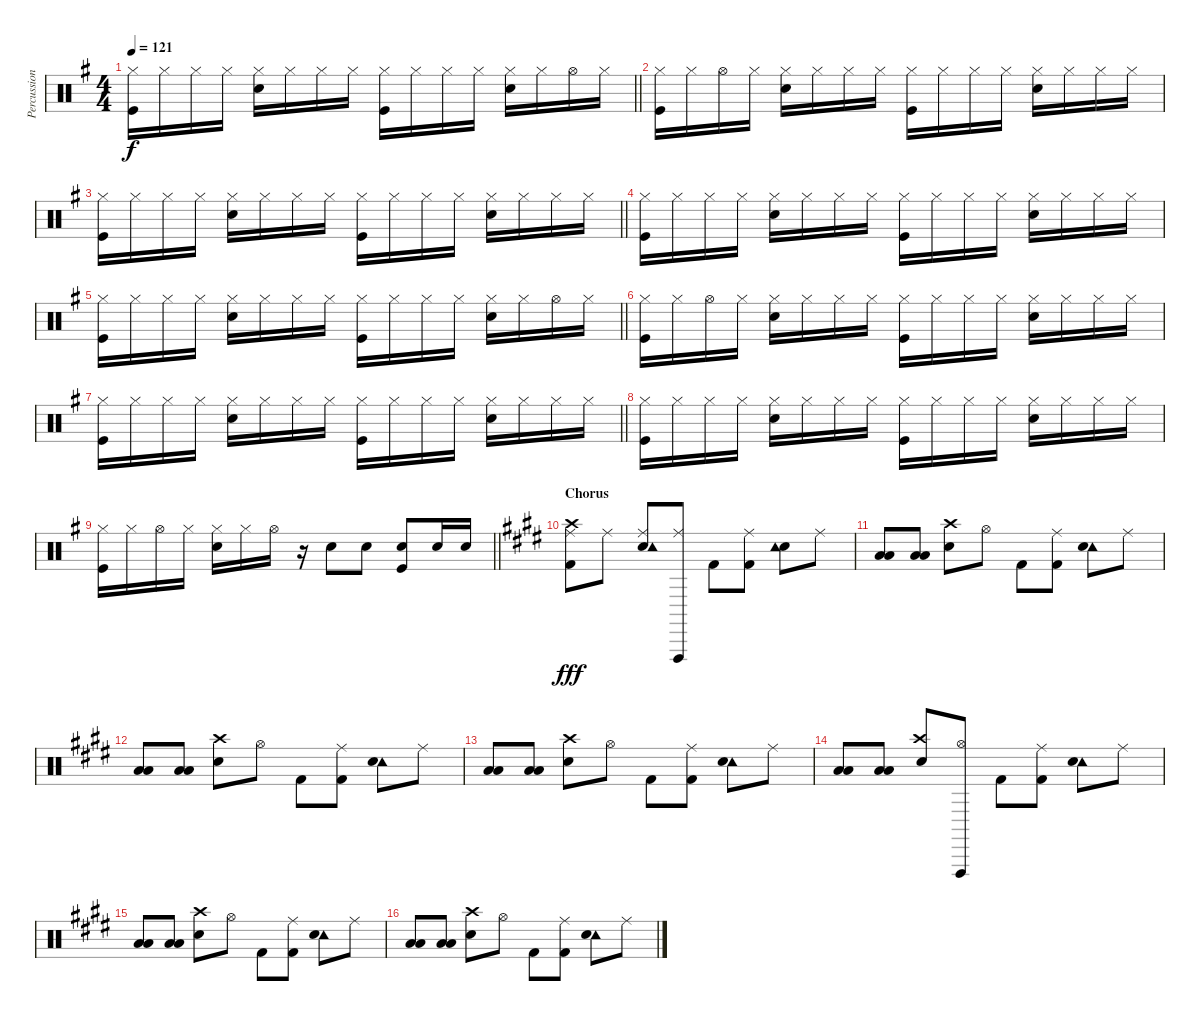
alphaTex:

\track ("Percussion" "Percussion") {instrument percussion}
\staff {score}
\articulation defaults
\ts (4 4)
\tempo 121
\clef neutral
\barLineRight lightlight
\ks g
("Hi-Hat (closed)" "Kick (hit)").16{dy f} "Hi-Hat (closed)".16 "Hi-Hat (closed)".16 "Hi-Hat (closed)".16 ("Hi-Hat (closed)" "Snare (hit) 2").16 "Hi-Hat (closed)".16 "Hi-Hat (closed)".16 "Hi-Hat (closed)".16 ("Hi-Hat (closed)" "Kick (hit)").16 "Hi-Hat (closed)".16 "Hi-Hat (closed)".16 "Hi-Hat (closed)".16 ("Hi-Hat (closed)" "Snare (hit) 2").16 "Hi-Hat (closed)".16 "Hi-Hat (open)".16 "Hi-Hat (closed)".16 |
("Hi-Hat (closed)" "Kick (hit)").16 "Hi-Hat (closed)".16 "Hi-Hat (open)".16 "Hi-Hat (closed)".16 ("Hi-Hat (closed)" "Snare (hit) 2").16 "Hi-Hat (closed)".16 "Hi-Hat (closed)".16 "Hi-Hat (closed)".16 ("Hi-Hat (closed)" "Kick (hit)").16 "Hi-Hat (closed)".16 "Hi-Hat (closed)".16 "Hi-Hat (closed)".16 ("Hi-Hat (closed)" "Snare (hit) 2").16 "Hi-Hat (closed)".16 "Hi-Hat (closed)".16 "Hi-Hat (closed)".16 |
\barLineRight lightlight
("Hi-Hat (closed)" "Kick (hit)").16 "Hi-Hat (closed)".16 "Hi-Hat (closed)".16 "Hi-Hat (closed)".16 ("Hi-Hat (closed)" "Snare (hit) 2").16 "Hi-Hat (closed)".16 "Hi-Hat (closed)".16 "Hi-Hat (closed)".16 ("Hi-Hat (closed)" "Kick (hit)").16 "Hi-Hat (closed)".16 "Hi-Hat (closed)".16 "Hi-Hat (closed)".16 ("Hi-Hat (closed)" "Snare (hit) 2").16 "Hi-Hat (closed)".16 "Hi-Hat (closed)".16 "Hi-Hat (closed)".16 |
("Hi-Hat (closed)" "Kick (hit)").16 "Hi-Hat (closed)".16 "Hi-Hat (closed)".16 "Hi-Hat (closed)".16 ("Hi-Hat (closed)" "Snare (hit) 2").16 "Hi-Hat (closed)".16 "Hi-Hat (closed)".16 "Hi-Hat (closed)".16 ("Hi-Hat (closed)" "Kick (hit)").16 "Hi-Hat (closed)".16 "Hi-Hat (closed)".16 "Hi-Hat (closed)".16 ("Hi-Hat (closed)" "Snare (hit) 2").16 "Hi-Hat (closed)".16 "Hi-Hat (closed)".16 "Hi-Hat (closed)".16 |
\barLineRight lightlight
("Hi-Hat (closed)" "Kick (hit)").16 "Hi-Hat (closed)".16 "Hi-Hat (closed)".16 "Hi-Hat (closed)".16 ("Hi-Hat (closed)" "Snare (hit) 2").16 "Hi-Hat (closed)".16 "Hi-Hat (closed)".16 "Hi-Hat (closed)".16 ("Hi-Hat (closed)" "Kick (hit)").16 "Hi-Hat (closed)".16 "Hi-Hat (closed)".16 "Hi-Hat (closed)".16 ("Hi-Hat (closed)" "Snare (hit) 2").16 "Hi-Hat (closed)".16 "Hi-Hat (open)".16 "Hi-Hat (closed)".16 |
("Hi-Hat (closed)" "Kick (hit)").16 "Hi-Hat (closed)".16 "Hi-Hat (open)".16 "Hi-Hat (closed)".16 ("Hi-Hat (closed)" "Snare (hit) 2").16 "Hi-Hat (closed)".16 "Hi-Hat (closed)".16 "Hi-Hat (closed)".16 ("Hi-Hat (closed)" "Kick (hit)").16 "Hi-Hat (closed)".16 "Hi-Hat (closed)".16 "Hi-Hat (closed)".16 ("Hi-Hat (closed)" "Snare (hit) 2").16 "Hi-Hat (closed)".16 "Hi-Hat (closed)".16 "Hi-Hat (closed)".16 |
\barLineRight lightlight
("Hi-Hat (closed)" "Kick (hit)").16 "Hi-Hat (closed)".16 "Hi-Hat (closed)".16 "Hi-Hat (closed)".16 ("Hi-Hat (closed)" "Snare (hit) 2").16 "Hi-Hat (closed)".16 "Hi-Hat (closed)".16 "Hi-Hat (closed)".16 ("Hi-Hat (closed)" "Kick (hit)").16 "Hi-Hat (closed)".16 "Hi-Hat (closed)".16 "Hi-Hat (closed)".16 ("Hi-Hat (closed)" "Snare (hit) 2").16 "Hi-Hat (closed)".16 "Hi-Hat (closed)".16 "Hi-Hat (closed)".16 |
("Hi-Hat (closed)" "Kick (hit)").16 "Hi-Hat (closed)".16 "Hi-Hat (closed)".16 "Hi-Hat (closed)".16 ("Hi-Hat (closed)" "Snare (hit) 2").16 "Hi-Hat (closed)".16 "Hi-Hat (closed)".16 "Hi-Hat (closed)".16 ("Hi-Hat (closed)" "Kick (hit)").16 "Hi-Hat (closed)".16 "Hi-Hat (closed)".16 "Hi-Hat (closed)".16 ("Hi-Hat (closed)" "Snare (hit) 2").16 "Hi-Hat (closed)".16 "Hi-Hat (closed)".16 "Hi-Hat (closed)".16 |
\barLineRight lightlight
("Hi-Hat (closed)" "Kick (hit)").16 "Hi-Hat (closed)".16 "Hi-Hat (open)".16 "Hi-Hat (closed)".16 ("Hi-Hat (closed)" "Snare (hit) 2").16 "Hi-Hat (closed)".16 "Hi-Hat (open)".16 r.16 "Snare (hit) 2".8 "Snare (hit) 2".8 ("Kick (hit)" "Snare (hit) 2").8 "Snare (hit) 2".16 "Snare (hit) 2".16 |
\section ("" "Chorus")
\ks e
("Ride (middle)" "Crash high (hit)" "Kick (hit) 2").8{dy fff} "Ride (middle)".8 ("Ride (middle)" "Snare (hit) 2" "Tambourine (hit)").8 ("Ride (middle)" "Vibraslap (hit)").8 "Kick (hit) 2".8 ("Ride (middle)" "Kick (hit) 2").8 ("Snare (hit) 2" "Tambourine (hit)").8 "Ride (middle)".8 |
("Low Tom (hit)" "Low Floor Tom (hit)").8 ("Low Tom (hit)" "Low Floor Tom (hit)").8 ("Crash high (hit)" "Snare (hit) 2").8 "Hi-Hat (open)".8 "Kick (hit) 2".8 ("Ride (middle)" "Kick (hit) 2").8 ("Tambourine (hit)" "Snare (hit) 2").8 "Ride (middle)".8 |
("Low Tom (hit)" "Low Floor Tom (hit)").8 ("Low Tom (hit)" "Low Floor Tom (hit)").8 ("Crash high (hit)" "Snare (hit) 2").8 "Hi-Hat (open)".8 "Kick (hit) 2".8 ("Ride (middle)" "Kick (hit) 2").8 ("Tambourine (hit)" "Snare (hit) 2").8 "Ride (middle)".8 |
("Low Tom (hit)" "Low Floor Tom (hit)").8 ("Low Tom (hit)" "Low Floor Tom (hit)").8 ("Crash high (hit)" "Snare (hit) 2").8 "Hi-Hat (open)".8 "Kick (hit) 2".8 ("Ride (middle)" "Kick (hit) 2").8 ("Tambourine (hit)" "Snare (hit) 2").8 "Ride (middle)".8 |
("Low Tom (hit)" "Low Floor Tom (hit)").8 ("Low Tom (hit)" "Low Floor Tom (hit)").8 ("Crash high (hit)" "Snare (hit) 2").8 ("Hi-Hat (open)" "Vibraslap (hit)").8 "Kick (hit) 2".8 ("Ride (middle)" "Kick (hit) 2").8 ("Tambourine (hit)" "Snare (hit) 2").8 "Ride (middle)".8 |
("Low Tom (hit)" "Low Floor Tom (hit)").8 ("Low Tom (hit)" "Low Floor Tom (hit)").8 ("Crash high (hit)" "Snare (hit) 2").8 "Hi-Hat (open)".8 "Kick (hit) 2".8 ("Ride (middle)" "Kick (hit) 2").8 ("Tambourine (hit)" "Snare (hit) 2").8 "Ride (middle)".8 |
("Low Tom (hit)" "Low Floor Tom (hit)").8 ("Low Tom (hit)" "Low Floor Tom (hit)").8 ("Crash high (hit)" "Snare (hit) 2").8 "Hi-Hat (open)".8 "Kick (hit) 2".8 ("Ride (middle)" "Kick (hit) 2").8 ("Tambourine (hit)" "Snare (hit) 2").8 "Ride (middle)".8
